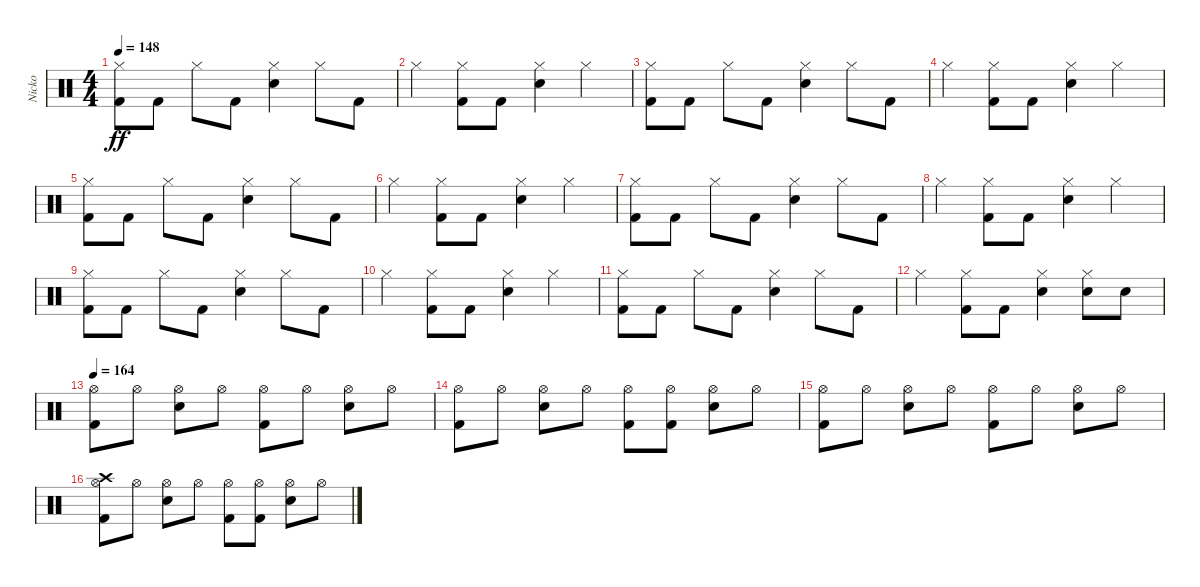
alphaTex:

\track ("Nicko" "Nicko") {instrument percussion}
\staff {score}
\articulation defaults
\ts (4 4)
\tempo 148
\clef neutral
\ks c
("Kick (hit) 2" "Hi-Hat (closed)").8{dy ff} "Kick (hit) 2".8 "Hi-Hat (closed)".8 "Kick (hit) 2".8 ("Snare (hit) 2" "Hi-Hat (closed)").4 "Hi-Hat (closed)".8 "Kick (hit) 2".8 |
"Hi-Hat (closed)".4 ("Kick (hit) 2" "Hi-Hat (closed)").8 "Kick (hit) 2".8 ("Snare (hit) 2" "Hi-Hat (closed)").4 "Hi-Hat (closed)".4 |
("Kick (hit) 2" "Hi-Hat (closed)").8 "Kick (hit) 2".8 "Hi-Hat (closed)".8 "Kick (hit) 2".8 ("Snare (hit) 2" "Hi-Hat (closed)").4 "Hi-Hat (closed)".8 "Kick (hit) 2".8 |
"Hi-Hat (closed)".4 ("Kick (hit) 2" "Hi-Hat (closed)").8 "Kick (hit) 2".8 ("Snare (hit) 2" "Hi-Hat (closed)").4 "Hi-Hat (closed)".4 |
("Kick (hit) 2" "Hi-Hat (closed)").8 "Kick (hit) 2".8 "Hi-Hat (closed)".8 "Kick (hit) 2".8 ("Snare (hit) 2" "Hi-Hat (closed)").4 "Hi-Hat (closed)".8 "Kick (hit) 2".8 |
"Hi-Hat (closed)".4 ("Kick (hit) 2" "Hi-Hat (closed)").8 "Kick (hit) 2".8 ("Snare (hit) 2" "Hi-Hat (closed)").4 "Hi-Hat (closed)".4 |
("Kick (hit) 2" "Hi-Hat (closed)").8 "Kick (hit) 2".8 "Hi-Hat (closed)".8 "Kick (hit) 2".8 ("Snare (hit) 2" "Hi-Hat (closed)").4 "Hi-Hat (closed)".8 "Kick (hit) 2".8 |
"Hi-Hat (closed)".4 ("Kick (hit) 2" "Hi-Hat (closed)").8 "Kick (hit) 2".8 ("Snare (hit) 2" "Hi-Hat (closed)").4 "Hi-Hat (closed)".4 |
("Kick (hit) 2" "Hi-Hat (closed)").8 "Kick (hit) 2".8 "Hi-Hat (closed)".8 "Kick (hit) 2".8 ("Snare (hit) 2" "Hi-Hat (closed)").4 "Hi-Hat (closed)".8 "Kick (hit) 2".8 |
"Hi-Hat (closed)".4 ("Kick (hit) 2" "Hi-Hat (closed)").8 "Kick (hit) 2".8 ("Snare (hit) 2" "Hi-Hat (closed)").4 "Hi-Hat (closed)".4 |
("Kick (hit) 2" "Hi-Hat (closed)").8 "Kick (hit) 2".8 "Hi-Hat (closed)".8 "Kick (hit) 2".8 ("Snare (hit) 2" "Hi-Hat (closed)").4 "Hi-Hat (closed)".8 "Kick (hit) 2".8 |
"Hi-Hat (closed)".4 ("Kick (hit) 2" "Hi-Hat (closed)").8 "Kick (hit) 2".8 ("Snare (hit) 2" "Hi-Hat (closed)").4 ("Snare (hit) 2" "Hi-Hat (closed)").8 "Snare (hit) 2".8 |
\tempo 164
("Kick (hit) 2" "Hi-Hat (open)").8 "Hi-Hat (open)".8 ("Snare (hit) 2" "Hi-Hat (open)").8 "Hi-Hat (open)".8 ("Kick (hit) 2" "Hi-Hat (open)").8 "Hi-Hat (open)".8 ("Snare (hit) 2" "Hi-Hat (open)").8 "Hi-Hat (open)".8 |
("Kick (hit) 2" "Hi-Hat (open)").8 "Hi-Hat (open)".8 ("Snare (hit) 2" "Hi-Hat (open)").8 "Hi-Hat (open)".8 ("Kick (hit) 2" "Hi-Hat (open)").8 ("Kick (hit) 2" "Hi-Hat (open)").8 ("Snare (hit) 2" "Hi-Hat (open)").8 "Hi-Hat (open)".8 |
("Kick (hit) 2" "Hi-Hat (open)").8 "Hi-Hat (open)".8 ("Snare (hit) 2" "Hi-Hat (open)").8 "Hi-Hat (open)".8 ("Kick (hit) 2" "Hi-Hat (open)").8 "Hi-Hat (open)".8 ("Snare (hit) 2" "Hi-Hat (open)").8 "Hi-Hat (open)".8 |
("Kick (hit) 2" "Hi-Hat (open)" "Crash high (hit)").8 "Hi-Hat (open)".8 ("Snare (hit) 2" "Hi-Hat (open)").8 "Hi-Hat (open)".8 ("Kick (hit) 2" "Hi-Hat (open)").8 ("Kick (hit) 2" "Hi-Hat (open)").8 ("Snare (hit) 2" "Hi-Hat (open)").8 "Hi-Hat (open)".8
